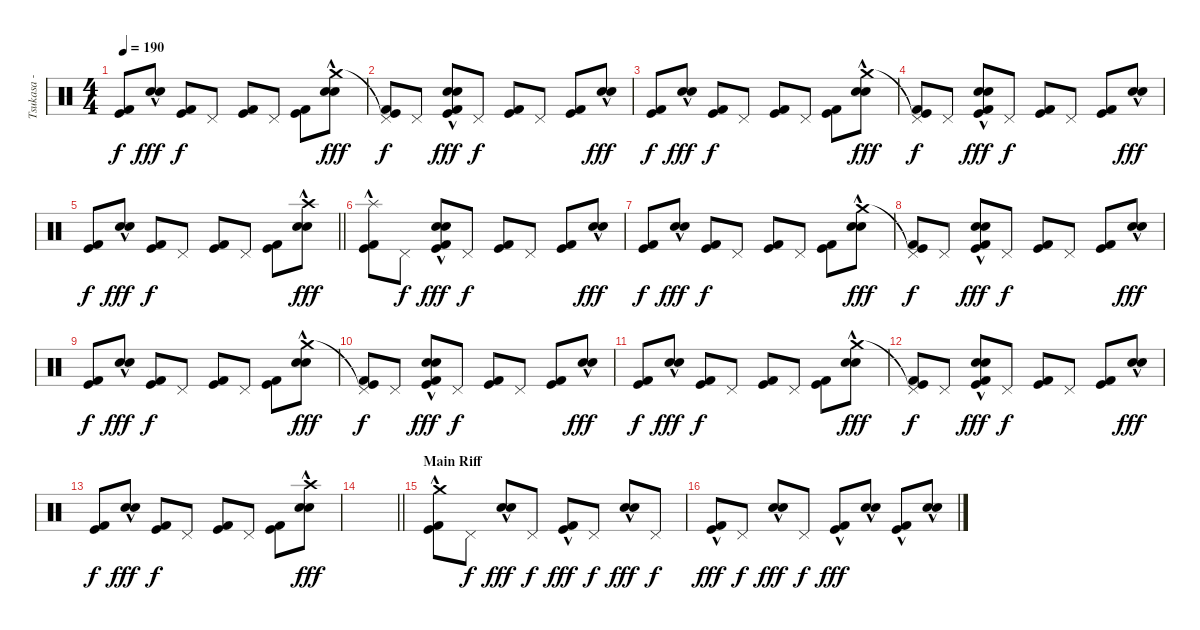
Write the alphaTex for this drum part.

\track ("Tsukasa - Drums" "Tsukasa - ") {instrument percussion}
\staff {score}
\articulation defaults
\ts (4 4)
\tempo 190
\clef neutral
\ks c
("Kick (hit)" "Kick (hit) 2").8{dy f} ("Electric Snare (hit)"{hac} "Snare (hit) 2").8{dy fff} ("Kick (hit)" "Kick (hit) 2").8{dy f} "Pedal Hi-Hat (hit)".8 ("Kick (hit)" "Kick (hit) 2").8 "Pedal Hi-Hat (hit)".8 ("Kick (hit)" "Kick (hit) 2").8 ("Crash medium (hit)" "Electric Snare (hit)"{hac} "Snare (hit) 2").8{dy fff} |
("Pedal Hi-Hat (hit)"{t} "Kick (hit)" "Kick (hit) 2").8{dy f} "Pedal Hi-Hat (hit)".8 ("Electric Snare (hit)"{hac} "Snare (hit) 2" "Kick (hit)" "Kick (hit) 2").8{dy fff} "Pedal Hi-Hat (hit)".8{dy f} ("Kick (hit)" "Kick (hit) 2").8 "Pedal Hi-Hat (hit)".8 ("Kick (hit)" "Kick (hit) 2").8 ("Electric Snare (hit)"{hac} "Snare (hit) 2").8{dy fff} |
("Kick (hit)" "Kick (hit) 2").8{dy f} ("Electric Snare (hit)"{hac} "Snare (hit) 2").8{dy fff} ("Kick (hit)" "Kick (hit) 2").8{dy f} "Pedal Hi-Hat (hit)".8 ("Kick (hit)" "Kick (hit) 2").8 "Pedal Hi-Hat (hit)".8 ("Kick (hit)" "Kick (hit) 2").8 ("Crash medium (hit)" "Electric Snare (hit)"{hac} "Snare (hit) 2").8{dy fff} |
("Pedal Hi-Hat (hit)"{t} "Kick (hit)" "Kick (hit) 2").8{dy f} "Pedal Hi-Hat (hit)".8 ("Electric Snare (hit)"{hac} "Snare (hit) 2" "Kick (hit)" "Kick (hit) 2").8{dy fff} "Pedal Hi-Hat (hit)".8{dy f} ("Kick (hit)" "Kick (hit) 2").8 "Pedal Hi-Hat (hit)".8 ("Kick (hit)" "Kick (hit) 2").8 ("Electric Snare (hit)"{hac} "Snare (hit) 2").8{dy fff} |
\barLineRight lightlight
("Kick (hit)" "Kick (hit) 2").8{dy f} ("Electric Snare (hit)"{hac} "Snare (hit) 2").8{dy fff} ("Kick (hit)" "Kick (hit) 2").8{dy f} "Pedal Hi-Hat (hit)".8 ("Kick (hit)" "Kick (hit) 2").8 "Pedal Hi-Hat (hit)".8 ("Kick (hit)" "Kick (hit) 2").8 ("Crash high (hit)" "Electric Snare (hit)"{hac} "Snare (hit) 2").8{dy fff} |
\section ("" "")
("Splash (hit)"{hac} "Kick (hit)" "Kick (hit) 2").8 "Pedal Hi-Hat (hit)".8{dy f} ("Electric Snare (hit)"{hac} "Snare (hit) 2" "Kick (hit)" "Kick (hit) 2").8{dy fff} "Pedal Hi-Hat (hit)".8{dy f} ("Kick (hit)" "Kick (hit) 2").8 "Pedal Hi-Hat (hit)".8 ("Kick (hit)" "Kick (hit) 2").8 ("Electric Snare (hit)"{hac} "Snare (hit) 2").8{dy fff} |
("Kick (hit)" "Kick (hit) 2").8{dy f} ("Electric Snare (hit)"{hac} "Snare (hit) 2").8{dy fff} ("Kick (hit)" "Kick (hit) 2").8{dy f} "Pedal Hi-Hat (hit)".8 ("Kick (hit)" "Kick (hit) 2").8 "Pedal Hi-Hat (hit)".8 ("Kick (hit)" "Kick (hit) 2").8 ("Crash medium (hit)" "Electric Snare (hit)"{hac} "Snare (hit) 2").8{dy fff} |
("Pedal Hi-Hat (hit)"{t} "Kick (hit)" "Kick (hit) 2").8{dy f} "Pedal Hi-Hat (hit)".8 ("Electric Snare (hit)"{hac} "Snare (hit) 2" "Kick (hit)" "Kick (hit) 2").8{dy fff} "Pedal Hi-Hat (hit)".8{dy f} ("Kick (hit)" "Kick (hit) 2").8 "Pedal Hi-Hat (hit)".8 ("Kick (hit)" "Kick (hit) 2").8 ("Electric Snare (hit)"{hac} "Snare (hit) 2").8{dy fff} |
("Kick (hit)" "Kick (hit) 2").8{dy f} ("Electric Snare (hit)"{hac} "Snare (hit) 2").8{dy fff} ("Kick (hit)" "Kick (hit) 2").8{dy f} "Pedal Hi-Hat (hit)".8 ("Kick (hit)" "Kick (hit) 2").8 "Pedal Hi-Hat (hit)".8 ("Kick (hit)" "Kick (hit) 2").8 ("Crash medium (hit)" "Electric Snare (hit)"{hac} "Snare (hit) 2").8{dy fff} |
("Pedal Hi-Hat (hit)"{t} "Kick (hit)" "Kick (hit) 2").8{dy f} "Pedal Hi-Hat (hit)".8 ("Electric Snare (hit)"{hac} "Snare (hit) 2" "Kick (hit)" "Kick (hit) 2").8{dy fff} "Pedal Hi-Hat (hit)".8{dy f} ("Kick (hit)" "Kick (hit) 2").8 "Pedal Hi-Hat (hit)".8 ("Kick (hit)" "Kick (hit) 2").8 ("Electric Snare (hit)"{hac} "Snare (hit) 2").8{dy fff} |
("Kick (hit)" "Kick (hit) 2").8{dy f} ("Electric Snare (hit)"{hac} "Snare (hit) 2").8{dy fff} ("Kick (hit)" "Kick (hit) 2").8{dy f} "Pedal Hi-Hat (hit)".8 ("Kick (hit)" "Kick (hit) 2").8 "Pedal Hi-Hat (hit)".8 ("Kick (hit)" "Kick (hit) 2").8 ("Crash medium (hit)" "Electric Snare (hit)"{hac} "Snare (hit) 2").8{dy fff} |
("Pedal Hi-Hat (hit)"{t} "Kick (hit)" "Kick (hit) 2").8{dy f} "Pedal Hi-Hat (hit)".8 ("Electric Snare (hit)"{hac} "Snare (hit) 2" "Kick (hit)" "Kick (hit) 2").8{dy fff} "Pedal Hi-Hat (hit)".8{dy f} ("Kick (hit)" "Kick (hit) 2").8 "Pedal Hi-Hat (hit)".8 ("Kick (hit)" "Kick (hit) 2").8 ("Electric Snare (hit)"{hac} "Snare (hit) 2").8{dy fff} |
("Kick (hit)" "Kick (hit) 2").8{dy f} ("Electric Snare (hit)"{hac} "Snare (hit) 2").8{dy fff} ("Kick (hit)" "Kick (hit) 2").8{dy f} "Pedal Hi-Hat (hit)".8 ("Kick (hit)" "Kick (hit) 2").8 "Pedal Hi-Hat (hit)".8 ("Kick (hit)" "Kick (hit) 2").8 ("Crash high (hit)" "Electric Snare (hit)"{hac} "Snare (hit) 2").8{dy fff} |
\barLineRight lightlight
|
\section ("" "Main Riff")
("Crash medium (hit)" "Kick (hit)"{hac} "Kick (hit) 2"{hac}).8 "Pedal Hi-Hat (hit)".8{dy f} ("Electric Snare (hit)"{hac} "Snare (hit) 2"{hac}).8{dy fff} "Pedal Hi-Hat (hit)".8{dy f} ("Kick (hit)"{hac} "Kick (hit) 2"{hac}).8{dy fff} "Pedal Hi-Hat (hit)".8{dy f} ("Electric Snare (hit)"{hac} "Snare (hit) 2").8{dy fff} "Pedal Hi-Hat (hit)".8{dy f} |
("Kick (hit)"{hac} "Kick (hit) 2"{hac}).8{dy fff} "Pedal Hi-Hat (hit)".8{dy f} ("Electric Snare (hit)"{hac} "Snare (hit) 2"{hac}).8{dy fff} "Pedal Hi-Hat (hit)".8{dy f} ("Kick (hit)"{hac} "Kick (hit) 2"{hac}).8{dy fff} ("Electric Snare (hit)"{hac} "Snare (hit) 2"{hac}).8 ("Kick (hit)"{hac} "Kick (hit) 2"{hac}).8 ("Electric Snare (hit)"{hac} "Snare (hit) 2"{hac}).8
